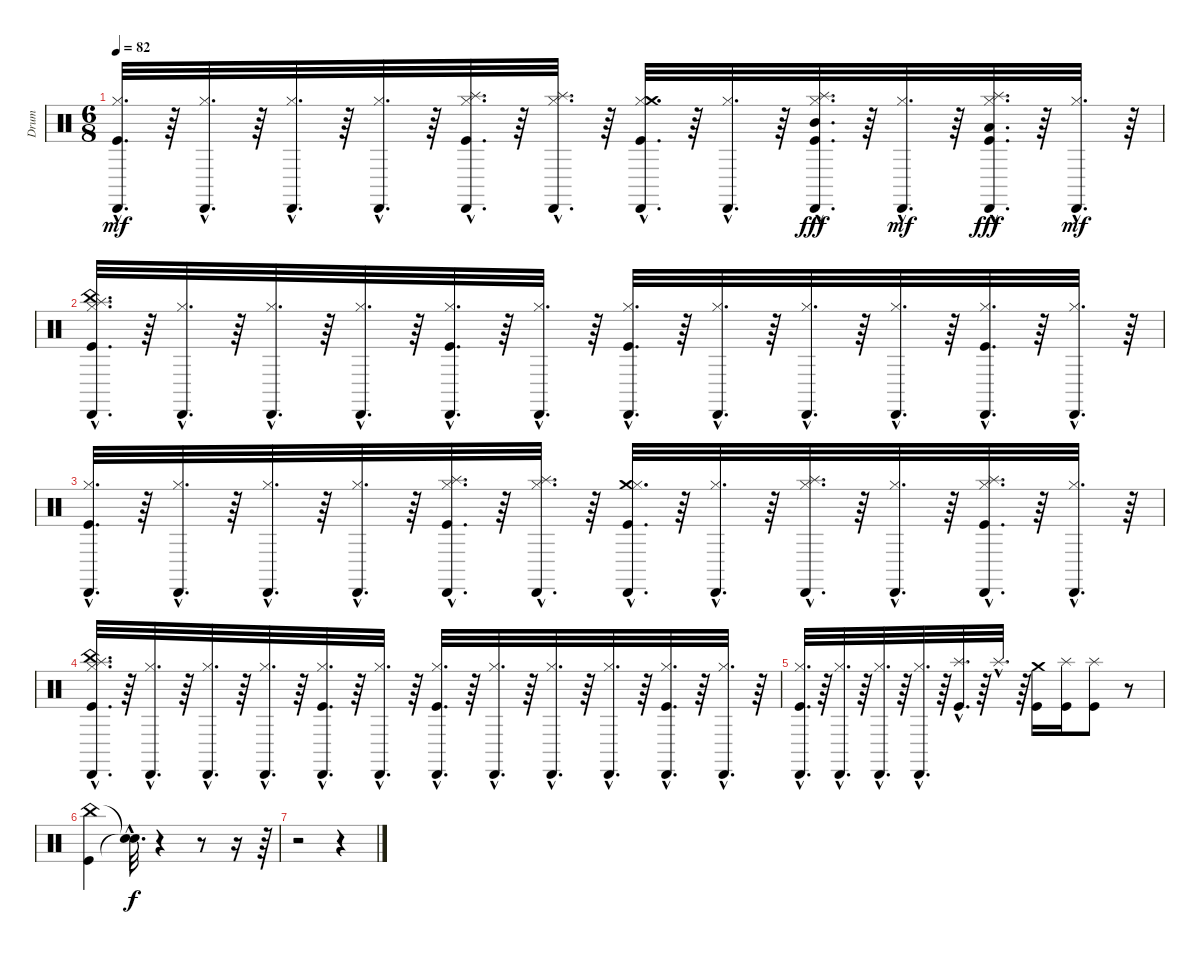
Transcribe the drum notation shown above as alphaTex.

\track ("Drum" "Drum") {instrument percussion}
\staff {score}
\articulation defaults
\ts (6 8)
\tempo 82
\clef neutral
\ks c
("Cabasa (hit)"{hac} "Kick (hit)"{hac} "Hi-Hat (closed)"{hac}).32{d dy mf} r.64 ("Cabasa (hit)"{hac} "Hi-Hat (closed)"{hac}).32{d} r.64 ("Cabasa (hit)"{hac} "Hi-Hat (closed)"{hac}).32{d} r.64 ("Cabasa (hit)"{hac} "Hi-Hat (closed)"{hac}).32{d} r.64 ("Cabasa (hit)"{hac} "Kick (hit)"{hac} "Hi-Hat (closed)"{hac} "Splash (hit)"{hac}).32{d} r.64 ("Cabasa (hit)"{hac} "Hi-Hat (closed)"{hac} "Splash (hit)"{hac}).32{d} r.64 ("Cabasa (hit)"{hac} "Kick (hit)"{hac} "Hi-Hat (closed)"{hac} "Crash medium (hit)"{hac}).32{d} r.64 ("Cabasa (hit)"{hac} "Hi-Hat (closed)"{hac}).32{d} r.64 ("Cabasa (hit)"{hac} "Hi-Hat (closed)"{hac} "Splash (hit)"{hac} "Kick (hit)"{hac} "Mid Tom (hit)"{hac}).32{d dy fff} r.64 ("Cabasa (hit)"{hac} "Hi-Hat (closed)"{hac}).32{d dy mf} r.64 ("Cabasa (hit)"{hac} "Kick (hit)"{hac} "Hi-Hat (closed)"{hac} "Splash (hit)"{hac} "Low Tom (hit)"{hac}).32{d dy fff} r.64 ("Cabasa (hit)"{hac} "Hi-Hat (closed)"{hac}).32{d dy mf} r.64 |
("China (hit)"{hac} "Kick (hit)"{hac} "Hi-Hat (closed)"{hac} "Splash (hit)"{hac} "Cabasa (hit)"{hac}).32{d} r.64 ("Hi-Hat (closed)"{hac} "Cabasa (hit)"{hac}).32{d} r.64 ("Hi-Hat (closed)"{hac} "Cabasa (hit)"{hac}).32{d} r.64 ("Hi-Hat (closed)"{hac} "Cabasa (hit)"{hac}).32{d} r.64 ("Kick (hit)"{hac} "Hi-Hat (closed)"{hac} "Cabasa (hit)"{hac}).32{d} r.64 ("Hi-Hat (closed)"{hac} "Cabasa (hit)"{hac}).32{d} r.64 ("Kick (hit)"{hac} "Hi-Hat (closed)"{hac} "Cabasa (hit)"{hac}).32{d} r.64 ("Hi-Hat (closed)"{hac} "Cabasa (hit)"{hac}).32{d} r.64 ("Hi-Hat (closed)"{hac} "Cabasa (hit)"{hac}).32{d} r.64 ("Hi-Hat (closed)"{hac} "Cabasa (hit)"{hac}).32{d} r.64 ("Kick (hit)"{hac} "Hi-Hat (closed)"{hac} "Cabasa (hit)"{hac}).32{d} r.64 ("Hi-Hat (closed)"{hac} "Cabasa (hit)"{hac}).32{d} r.64 |
("Hi-Hat (closed)"{hac} "Kick (hit)"{hac} "Cabasa (hit)"{hac}).32{d} r.64 ("Hi-Hat (closed)"{hac} "Cabasa (hit)"{hac}).32{d} r.64 ("Hi-Hat (closed)"{hac} "Cabasa (hit)"{hac}).32{d} r.64 ("Hi-Hat (closed)"{hac} "Cabasa (hit)"{hac}).32{d} r.64 ("Splash (hit)"{hac} "Hi-Hat (closed)"{hac} "Kick (hit)"{hac} "Cabasa (hit)"{hac}).32{d} r.64 ("Splash (hit)"{hac} "Hi-Hat (closed)"{hac} "Cabasa (hit)"{hac}).32{d} r.64 ("Crash medium (hit)"{hac} "Hi-Hat (closed)"{hac} "Kick (hit)"{hac} "Cabasa (hit)"{hac}).32{d} r.64 ("Hi-Hat (closed)"{hac} "Cabasa (hit)"{hac}).32{d} r.64 ("Splash (hit)"{hac} "Hi-Hat (closed)"{hac} "Cabasa (hit)"{hac}).32{d} r.64 ("Hi-Hat (closed)"{hac} "Cabasa (hit)"{hac}).32{d} r.64 ("Splash (hit)"{hac} "Hi-Hat (closed)"{hac} "Kick (hit)"{hac} "Cabasa (hit)"{hac}).32{d} r.64 ("Hi-Hat (closed)"{hac} "Cabasa (hit)"{hac}).32{d} r.64 |
("China (hit)"{hac} "Kick (hit)"{hac} "Hi-Hat (closed)"{hac} "Splash (hit)"{hac} "Cabasa (hit)"{hac}).32{d} r.64 ("Hi-Hat (closed)"{hac} "Cabasa (hit)"{hac}).32{d} r.64 ("Hi-Hat (closed)"{hac} "Cabasa (hit)"{hac}).32{d} r.64 ("Hi-Hat (closed)"{hac} "Cabasa (hit)"{hac}).32{d} r.64 ("Kick (hit)"{hac} "Hi-Hat (closed)"{hac} "Cabasa (hit)"{hac}).32{d} r.64 ("Hi-Hat (closed)"{hac} "Cabasa (hit)"{hac}).32{d} r.64 ("Kick (hit)"{hac} "Hi-Hat (closed)"{hac} "Cabasa (hit)"{hac}).32{d} r.64 ("Hi-Hat (closed)"{hac} "Cabasa (hit)"{hac}).32{d} r.64 ("Hi-Hat (closed)"{hac} "Cabasa (hit)"{hac}).32{d} r.64 ("Hi-Hat (closed)"{hac} "Cabasa (hit)"{hac}).32{d} r.64 ("Kick (hit)"{hac} "Hi-Hat (closed)"{hac} "Cabasa (hit)"{hac}).32{d} r.64 ("Hi-Hat (closed)"{hac} "Cabasa (hit)"{hac}).32{d} r.64 |
("Cabasa (hit)"{hac} "Hi-Hat (closed)"{hac} "Kick (hit)"{hac}).32{d} r.64 ("Cabasa (hit)"{hac} "Hi-Hat (closed)"{hac}).32{d} r.64 ("Cabasa (hit)"{hac} "Hi-Hat (closed)"{hac}).32{d} r.64 ("Cabasa (hit)"{hac} "Hi-Hat (closed)"{hac}).32{d} r.64 ("Kick (hit)"{hac} "Splash (hit)"{hac}).32{d} r.64 "Splash (hit)"{hac}.32{d} r.64 ("Crash medium (hit)" "Kick (hit)").16 ("Splash (hit)" "Kick (hit)").16 ("Kick (hit)" "Splash (hit)").8 r.8 |
("Kick (hit)" "China (hit)").4 ("Snare (hit)"{hac t} "Snare (hit)"{hac t}).32{d dy f} r.4 r.8 r.16 r.64 |
r.2 r.4
